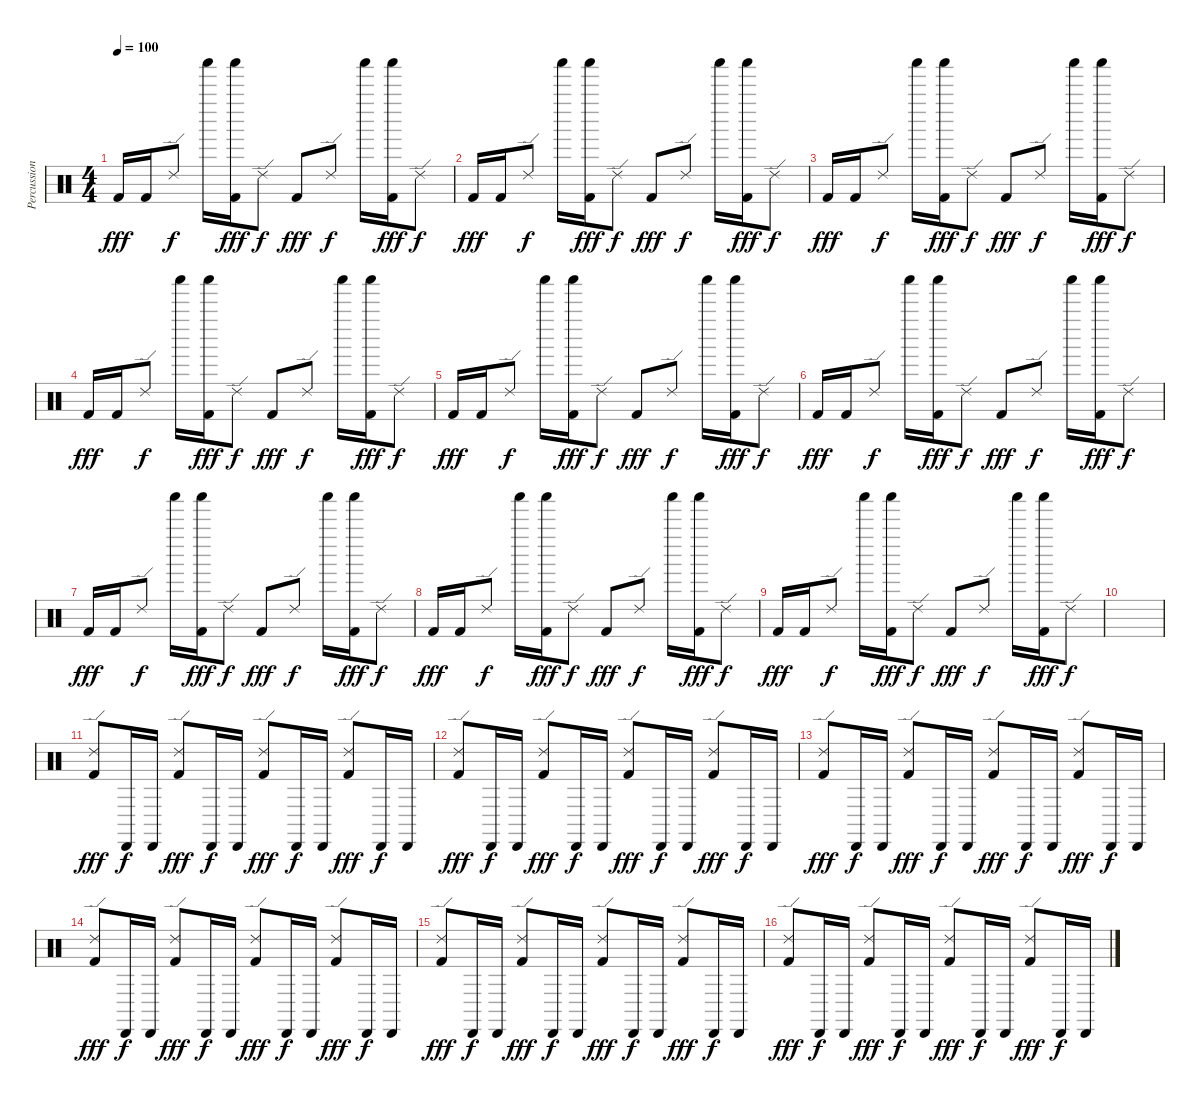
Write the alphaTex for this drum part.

\track ("Percussion" "Percussion") {instrument percussion}
\staff {score}
\articulation defaults
\ts (4 4)
\tempo 100
\clef neutral
\ks c "Kick (hit) 2".16{dy fff} "Kick (hit) 2".16 "Ride (edge) 2".8{dy f} "Shaker (hit)".16
("Shaker (hit)" "Kick (hit) 2").16{dy fff} "Ride (edge) 2".8{dy f} "Kick (hit) 2".8{dy fff} "Ride (edge) 2".8{dy f} "Shaker (hit)".16 ("Shaker (hit)" "Kick (hit) 2").16{dy fff} "Ride (edge) 2".8{dy f} |
"Kick (hit) 2".16{dy fff} "Kick (hit) 2".16 "Ride (edge) 2".8{dy f} "Shaker (hit)".16 ("Shaker (hit)" "Kick (hit) 2").16{dy fff} "Ride (edge) 2".8{dy f} "Kick (hit) 2".8{dy fff} "Ride (edge) 2".8{dy f} "Shaker (hit)".16 ("Shaker (hit)" "Kick (hit) 2").16{dy fff} "Ride (edge) 2".8{dy f} |
"Kick (hit) 2".16{dy fff} "Kick (hit) 2".16 "Ride (edge) 2".8{dy f} "Shaker (hit)".16 ("Shaker (hit)" "Kick (hit) 2").16{dy fff} "Ride (edge) 2".8{dy f} "Kick (hit) 2".8{dy fff} "Ride (edge) 2".8{dy f} "Shaker (hit)".16 ("Shaker (hit)" "Kick (hit) 2").16{dy fff} "Ride (edge) 2".8{dy f} |
"Kick (hit) 2".16{dy fff} "Kick (hit) 2".16 "Ride (edge) 2".8{dy f} "Shaker (hit)".16 ("Shaker (hit)" "Kick (hit) 2").16{dy fff} "Ride (edge) 2".8{dy f} "Kick (hit) 2".8{dy fff} "Ride (edge) 2".8{dy f} "Shaker (hit)".16 ("Shaker (hit)" "Kick (hit) 2").16{dy fff} "Ride (edge) 2".8{dy f} |
"Kick (hit) 2".16{dy fff} "Kick (hit) 2".16 "Ride (edge) 2".8{dy f} "Shaker (hit)".16 ("Shaker (hit)" "Kick (hit) 2").16{dy fff} "Ride (edge) 2".8{dy f} "Kick (hit) 2".8{dy fff} "Ride (edge) 2".8{dy f} "Shaker (hit)".16 ("Shaker (hit)" "Kick (hit) 2").16{dy fff} "Ride (edge) 2".8{dy f} |
"Kick (hit) 2".16{dy fff} "Kick (hit) 2".16 "Ride (edge) 2".8{dy f} "Shaker (hit)".16 ("Shaker (hit)" "Kick (hit) 2").16{dy fff} "Ride (edge) 2".8{dy f} "Kick (hit) 2".8{dy fff} "Ride (edge) 2".8{dy f} "Shaker (hit)".16 ("Shaker (hit)" "Kick (hit) 2").16{dy fff} "Ride (edge) 2".8{dy f} |
"Kick (hit) 2".16{dy fff} "Kick (hit) 2".16 "Ride (edge) 2".8{dy f} "Shaker (hit)".16 ("Shaker (hit)" "Kick (hit) 2").16{dy fff} "Ride (edge) 2".8{dy f} "Kick (hit) 2".8{dy fff} "Ride (edge) 2".8{dy f} "Shaker (hit)".16 ("Shaker (hit)" "Kick (hit) 2").16{dy fff} "Ride (edge) 2".8{dy f} |
"Kick (hit) 2".16{dy fff} "Kick (hit) 2".16 "Ride (edge) 2".8{dy f} "Shaker (hit)".16 ("Shaker (hit)" "Kick (hit) 2").16{dy fff} "Ride (edge) 2".8{dy f} "Kick (hit) 2".8{dy fff} "Ride (edge) 2".8{dy f} "Shaker (hit)".16 ("Shaker (hit)" "Kick (hit) 2").16{dy fff} "Ride (edge) 2".8{dy f} |
"Kick (hit) 2".16{dy fff} "Kick (hit) 2".16 "Ride (edge) 2".8{dy f} "Shaker (hit)".16 ("Shaker (hit)" "Kick (hit) 2").16{dy fff} "Ride (edge) 2".8{dy f} "Kick (hit) 2".8{dy fff} "Ride (edge) 2".8{dy f} "Shaker (hit)".16 ("Shaker (hit)" "Kick (hit) 2").16{dy fff} "Ride (edge) 2".8{dy f} |
|
("Ride (edge) 2" "Kick (hit) 2").8{dy fff} "Cabasa (hit)".16{dy f} "Cabasa (hit)".16 ("Ride (edge) 2" "Kick (hit) 2").8{dy fff} "Cabasa (hit)".16{dy f} "Cabasa (hit)".16 ("Ride (edge) 2" "Kick (hit) 2").8{dy fff} "Cabasa (hit)".16{dy f} "Cabasa (hit)".16 ("Ride (edge) 2" "Kick (hit) 2").8{dy fff} "Cabasa (hit)".16{dy f} "Cabasa (hit)".16 |
("Ride (edge) 2" "Kick (hit) 2").8{dy fff} "Cabasa (hit)".16{dy f} "Cabasa (hit)".16 ("Ride (edge) 2" "Kick (hit) 2").8{dy fff} "Cabasa (hit)".16{dy f} "Cabasa (hit)".16 ("Ride (edge) 2" "Kick (hit) 2").8{dy fff} "Cabasa (hit)".16{dy f} "Cabasa (hit)".16 ("Ride (edge) 2" "Kick (hit) 2").8{dy fff} "Cabasa (hit)".16{dy f} "Cabasa (hit)".16 |
("Ride (edge) 2" "Kick (hit) 2").8{dy fff} "Cabasa (hit)".16{dy f} "Cabasa (hit)".16 ("Ride (edge) 2" "Kick (hit) 2").8{dy fff} "Cabasa (hit)".16{dy f} "Cabasa (hit)".16 ("Ride (edge) 2" "Kick (hit) 2").8{dy fff} "Cabasa (hit)".16{dy f} "Cabasa (hit)".16 ("Ride (edge) 2" "Kick (hit) 2").8{dy fff} "Cabasa (hit)".16{dy f} "Cabasa (hit)".16 |
("Ride (edge) 2" "Kick (hit) 2").8{dy fff} "Cabasa (hit)".16{dy f} "Cabasa (hit)".16 ("Ride (edge) 2" "Kick (hit) 2").8{dy fff} "Cabasa (hit)".16{dy f} "Cabasa (hit)".16 ("Ride (edge) 2" "Kick (hit) 2").8{dy fff} "Cabasa (hit)".16{dy f} "Cabasa (hit)".16 ("Ride (edge) 2" "Kick (hit) 2").8{dy fff} "Cabasa (hit)".16{dy f} "Cabasa (hit)".16 |
("Ride (edge) 2" "Kick (hit) 2").8{dy fff} "Cabasa (hit)".16{dy f} "Cabasa (hit)".16 ("Ride (edge) 2" "Kick (hit) 2").8{dy fff} "Cabasa (hit)".16{dy f} "Cabasa (hit)".16 ("Ride (edge) 2" "Kick (hit) 2").8{dy fff} "Cabasa (hit)".16{dy f} "Cabasa (hit)".16 ("Ride (edge) 2" "Kick (hit) 2").8{dy fff} "Cabasa (hit)".16{dy f} "Cabasa (hit)".16 |
("Ride (edge) 2" "Kick (hit) 2").8{dy fff} "Cabasa (hit)".16{dy f} "Cabasa (hit)".16 ("Ride (edge) 2" "Kick (hit) 2").8{dy fff} "Cabasa (hit)".16{dy f} "Cabasa (hit)".16 ("Ride (edge) 2" "Kick (hit) 2").8{dy fff} "Cabasa (hit)".16{dy f} "Cabasa (hit)".16 ("Ride (edge) 2" "Kick (hit) 2").8{dy fff} "Cabasa (hit)".16{dy f} "Cabasa (hit)".16
